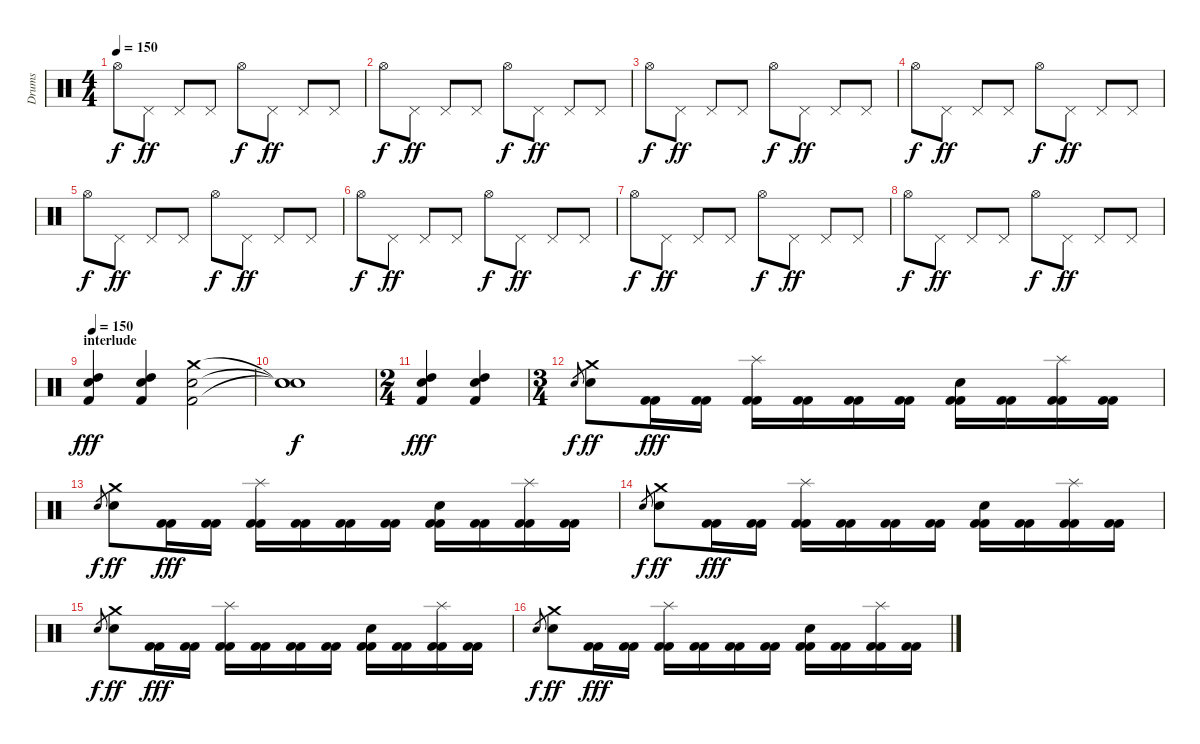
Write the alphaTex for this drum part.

\track ("Drums" "Drums") {instrument percussion}
\staff {score}
\articulation defaults
\ts (4 4)
\tempo 150
\clef neutral
\ks c "Hi-Hat (open)".8{dy f} "Pedal Hi-Hat (hit)".8{dy ff} "Pedal Hi-Hat (hit)".8 "Pedal Hi-Hat (hit)".8 "Hi-Hat (open)".8{dy f} "Pedal Hi-Hat (hit)".8{dy ff} "Pedal Hi-Hat (hit)".8 "Pedal Hi-Hat (hit)".8
|
"Hi-Hat (open)".8{dy f} "Pedal Hi-Hat (hit)".8{dy ff} "Pedal Hi-Hat (hit)".8 "Pedal Hi-Hat (hit)".8 "Hi-Hat (open)".8{dy f} "Pedal Hi-Hat (hit)".8{dy ff} "Pedal Hi-Hat (hit)".8 "Pedal Hi-Hat (hit)".8 |
"Hi-Hat (open)".8{dy f} "Pedal Hi-Hat (hit)".8{dy ff} "Pedal Hi-Hat (hit)".8 "Pedal Hi-Hat (hit)".8 "Hi-Hat (open)".8{dy f} "Pedal Hi-Hat (hit)".8{dy ff} "Pedal Hi-Hat (hit)".8 "Pedal Hi-Hat (hit)".8 |
"Hi-Hat (open)".8{dy f} "Pedal Hi-Hat (hit)".8{dy ff} "Pedal Hi-Hat (hit)".8 "Pedal Hi-Hat (hit)".8 "Hi-Hat (open)".8{dy f} "Pedal Hi-Hat (hit)".8{dy ff} "Pedal Hi-Hat (hit)".8 "Pedal Hi-Hat (hit)".8 |
"Hi-Hat (open)".8{dy f} "Pedal Hi-Hat (hit)".8{dy ff} "Pedal Hi-Hat (hit)".8 "Pedal Hi-Hat (hit)".8 "Hi-Hat (open)".8{dy f} "Pedal Hi-Hat (hit)".8{dy ff} "Pedal Hi-Hat (hit)".8 "Pedal Hi-Hat (hit)".8 |
"Hi-Hat (open)".8{dy f} "Pedal Hi-Hat (hit)".8{dy ff} "Pedal Hi-Hat (hit)".8 "Pedal Hi-Hat (hit)".8 "Hi-Hat (open)".8{dy f} "Pedal Hi-Hat (hit)".8{dy ff} "Pedal Hi-Hat (hit)".8 "Pedal Hi-Hat (hit)".8 |
"Hi-Hat (open)".8{dy f} "Pedal Hi-Hat (hit)".8{dy ff} "Pedal Hi-Hat (hit)".8 "Pedal Hi-Hat (hit)".8 "Hi-Hat (open)".8{dy f} "Pedal Hi-Hat (hit)".8{dy ff} "Pedal Hi-Hat (hit)".8 "Pedal Hi-Hat (hit)".8 |
"Hi-Hat (open)".8{dy f} "Pedal Hi-Hat (hit)".8{dy ff} "Pedal Hi-Hat (hit)".8 "Pedal Hi-Hat (hit)".8 "Hi-Hat (open)".8{dy f} "Pedal Hi-Hat (hit)".8{dy ff} "Pedal Hi-Hat (hit)".8 "Pedal Hi-Hat (hit)".8 |
\section ("" "interlude")
\tempo 150
("Electric Snare (hit)" "High Tom (hit)" "Kick (hit) 2").4{dy fff} ("Electric Snare (hit)" "High Tom (hit)" "Kick (hit) 2").4 ("Electric Snare (hit)" "Crash medium (hit)" "Kick (hit) 2").2 |
("Snare (hit)"{t} "Snare (hit)"{t} "Snare (hit)"{t}).1{dy f} |
\ts (2 4)
("Electric Snare (hit)" "High Tom (hit)" "Kick (hit) 2").4{dy fff} ("Electric Snare (hit)" "High Tom (hit)" "Kick (hit) 2").4 |
\ts (3 4)
"Electric Snare (hit)".8{gr dy f} ("Electric Snare (hit)" "Crash medium (hit)").8{dy ff} ("Kick (hit) 2" "Kick (hit) 2").16{dy fff} ("Kick (hit) 2" "Kick (hit) 2").16 ("Splash (hit)" "Kick (hit) 2" "Kick (hit) 2").16 ("Kick (hit) 2" "Kick (hit) 2").16 ("Kick (hit) 2" "Kick (hit) 2").16 ("Kick (hit) 2" "Kick (hit) 2").16 ("Electric Snare (hit)" "Kick (hit) 2" "Kick (hit) 2").16 ("Kick (hit) 2" "Kick (hit) 2").16 ("Splash (hit)" "Kick (hit) 2" "Kick (hit) 2").16 ("Kick (hit) 2" "Kick (hit) 2").16 |
"Electric Snare (hit)".8{gr dy f} ("Electric Snare (hit)" "Crash medium (hit)").8{dy ff} ("Kick (hit) 2" "Kick (hit) 2").16{dy fff} ("Kick (hit) 2" "Kick (hit) 2").16 ("Splash (hit)" "Kick (hit) 2" "Kick (hit) 2").16 ("Kick (hit) 2" "Kick (hit) 2").16 ("Kick (hit) 2" "Kick (hit) 2").16 ("Kick (hit) 2" "Kick (hit) 2").16 ("Electric Snare (hit)" "Kick (hit) 2" "Kick (hit) 2").16 ("Kick (hit) 2" "Kick (hit) 2").16 ("Splash (hit)" "Kick (hit) 2" "Kick (hit) 2").16 ("Kick (hit) 2" "Kick (hit) 2").16 |
"Electric Snare (hit)".8{gr dy f} ("Electric Snare (hit)" "Crash medium (hit)").8{dy ff} ("Kick (hit) 2" "Kick (hit) 2").16{dy fff} ("Kick (hit) 2" "Kick (hit) 2").16 ("Splash (hit)" "Kick (hit) 2" "Kick (hit) 2").16 ("Kick (hit) 2" "Kick (hit) 2").16 ("Kick (hit) 2" "Kick (hit) 2").16 ("Kick (hit) 2" "Kick (hit) 2").16 ("Electric Snare (hit)" "Kick (hit) 2" "Kick (hit) 2").16 ("Kick (hit) 2" "Kick (hit) 2").16 ("Splash (hit)" "Kick (hit) 2" "Kick (hit) 2").16 ("Kick (hit) 2" "Kick (hit) 2").16 |
"Electric Snare (hit)".8{gr dy f} ("Electric Snare (hit)" "Crash medium (hit)").8{dy ff} ("Kick (hit) 2" "Kick (hit) 2").16{dy fff} ("Kick (hit) 2" "Kick (hit) 2").16 ("Splash (hit)" "Kick (hit) 2" "Kick (hit) 2").16 ("Kick (hit) 2" "Kick (hit) 2").16 ("Kick (hit) 2" "Kick (hit) 2").16 ("Kick (hit) 2" "Kick (hit) 2").16 ("Electric Snare (hit)" "Kick (hit) 2" "Kick (hit) 2").16 ("Kick (hit) 2" "Kick (hit) 2").16 ("Splash (hit)" "Kick (hit) 2" "Kick (hit) 2").16 ("Kick (hit) 2" "Kick (hit) 2").16 |
"Electric Snare (hit)".8{gr dy f} ("Electric Snare (hit)" "Crash medium (hit)").8{dy ff} ("Kick (hit) 2" "Kick (hit) 2").16{dy fff} ("Kick (hit) 2" "Kick (hit) 2").16 ("Splash (hit)" "Kick (hit) 2" "Kick (hit) 2").16 ("Kick (hit) 2" "Kick (hit) 2").16 ("Kick (hit) 2" "Kick (hit) 2").16 ("Kick (hit) 2" "Kick (hit) 2").16 ("Electric Snare (hit)" "Kick (hit) 2" "Kick (hit) 2").16 ("Kick (hit) 2" "Kick (hit) 2").16 ("Splash (hit)" "Kick (hit) 2" "Kick (hit) 2").16 ("Kick (hit) 2" "Kick (hit) 2").16
